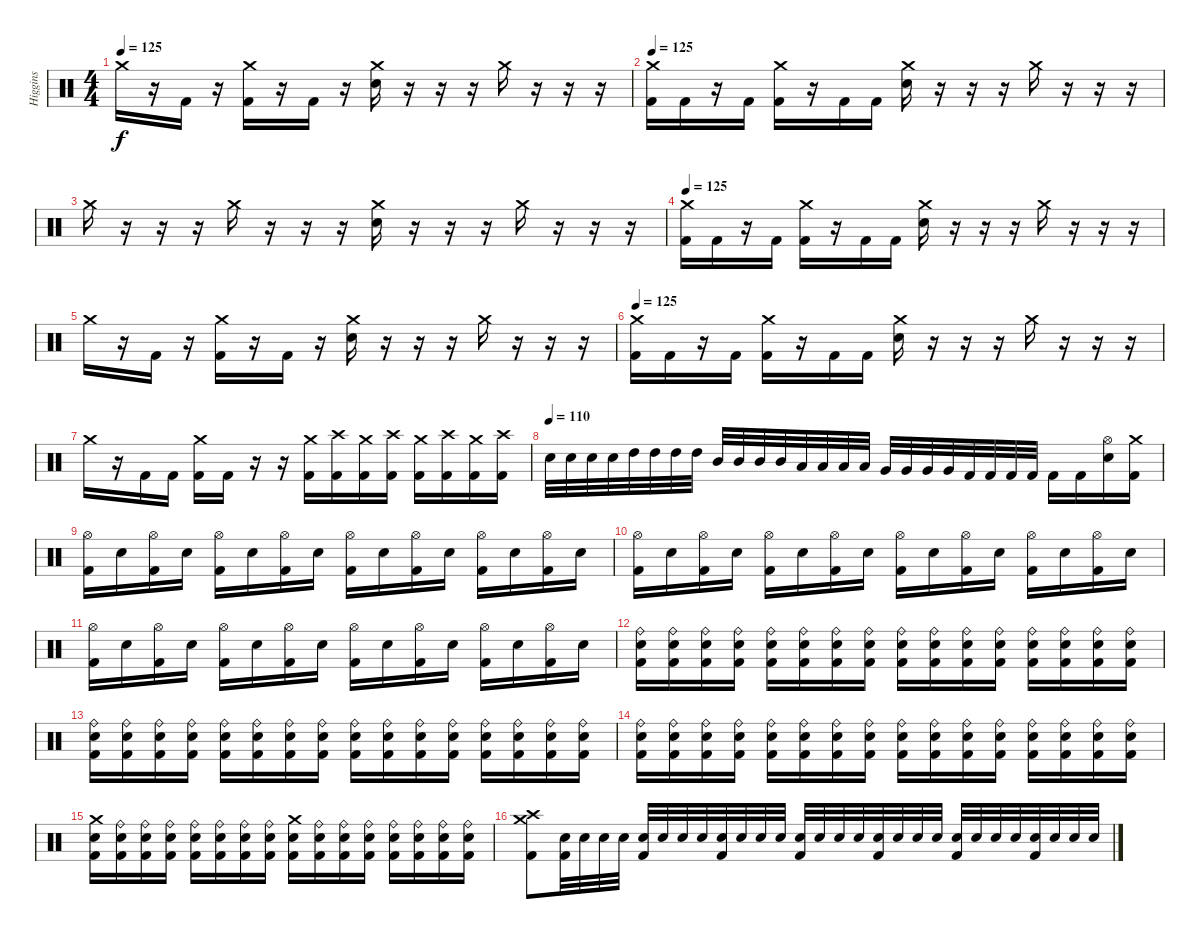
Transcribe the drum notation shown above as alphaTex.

\track ("Higgins" "Higgins") {instrument percussion}
\staff {score}
\articulation defaults
\ts (4 4)
\tempo 125
\clef neutral
\ks c "Crash medium (hit)".16{dy f}
r.16 "Kick (hit) 2".16 r.16 ("Crash medium (hit)" "Kick (hit) 2").16 r.16 "Kick (hit) 2".16 r.16 ("Crash medium (hit)" "Snare (hit) 2").16 r.16 r.16 r.16 "Crash medium (hit)".16 r.16 r.16 r.16 |
\tempo 125
("Crash medium (hit)" "Kick (hit) 2").16 "Kick (hit) 2".16 r.16 "Kick (hit) 2".16 ("Crash medium (hit)" "Kick (hit) 2").16 r.16 "Kick (hit) 2".16 "Kick (hit) 2".16 ("Crash medium (hit)" "Snare (hit) 2").16 r.16 r.16 r.16 "Crash medium (hit)".16 r.16 r.16 r.16 |
"Crash medium (hit)".16 r.16 r.16 r.16 "Crash medium (hit)".16 r.16 r.16 r.16 ("Crash medium (hit)" "Snare (hit) 2").16 r.16 r.16 r.16 "Crash medium (hit)".16 r.16 r.16 r.16 |
\tempo 125
("Crash medium (hit)" "Kick (hit) 2").16 "Kick (hit) 2".16 r.16 "Kick (hit) 2".16 ("Crash medium (hit)" "Kick (hit) 2").16 r.16 "Kick (hit) 2".16 "Kick (hit) 2".16 ("Crash medium (hit)" "Snare (hit) 2").16 r.16 r.16 r.16 "Crash medium (hit)".16 r.16 r.16 r.16 |
"Crash medium (hit)".16 r.16 "Kick (hit) 2".16 r.16 ("Crash medium (hit)" "Kick (hit) 2").16 r.16 "Kick (hit) 2".16 r.16 ("Crash medium (hit)" "Snare (hit) 2").16 r.16 r.16 r.16 "Crash medium (hit)".16 r.16 r.16 r.16 |
\tempo 125
("Crash medium (hit)" "Kick (hit) 2").16 "Kick (hit) 2".16 r.16 "Kick (hit) 2".16 ("Crash medium (hit)" "Kick (hit) 2").16 r.16 "Kick (hit) 2".16 "Kick (hit) 2".16 ("Crash medium (hit)" "Snare (hit) 2").16 r.16 r.16 r.16 "Crash medium (hit)".16 r.16 r.16 r.16 |
"Crash medium (hit)".16 r.16 "Kick (hit) 2".16 "Kick (hit) 2".16 ("Crash medium (hit)" "Kick (hit) 2").16 "Kick (hit) 2".16 r.16 r.16 ("Crash medium (hit)" "Kick (hit) 2").16 ("Crash high (hit)" "Kick (hit) 2").16 ("Crash medium (hit)" "Kick (hit) 2").16 ("Crash high (hit)" "Kick (hit) 2").16 ("Crash medium (hit)" "Kick (hit) 2").16 ("Crash high (hit)" "Kick (hit) 2").16 ("Crash medium (hit)" "Kick (hit) 2").16 ("Crash high (hit)" "Kick (hit) 2").16 |
\tempo (110)
"Snare (hit) 2".32 "Snare (hit) 2".32 "Snare (hit) 2".32 "Snare (hit) 2".32 "High Tom (hit)".32 "High Tom (hit)".32 "High Tom (hit)".32 "High Tom (hit)".32 "Mid Tom (hit)".32 "Mid Tom (hit)".32 "Mid Tom (hit)".32 "Mid Tom (hit)".32 "Low Tom (hit)".32 "Low Tom (hit)".32 "Low Tom (hit)".32 "Low Tom (hit)".32 "Very Low Tom (hit)".32 "Very Low Tom (hit)".32 "Very Low Tom (hit)".32 "Very Low Tom (hit)".32 "Kick (hit) 2".32 "Kick (hit) 2".32 "Kick (hit) 2".32 "Kick (hit) 2".32 "Kick (hit) 2".16 "Kick (hit) 2".16 ("Hi-Hat (open)" "Snare (hit) 2").16 ("Crash medium (hit)" "Kick (hit) 2").16 |
("Hi-Hat (open)" "Kick (hit) 2").16 "Snare (hit) 2".16 ("Hi-Hat (open)" "Kick (hit) 2").16 "Snare (hit) 2".16 ("Hi-Hat (open)" "Kick (hit) 2").16 "Snare (hit) 2".16 ("Hi-Hat (open)" "Kick (hit) 2").16 "Snare (hit) 2".16 ("Hi-Hat (open)" "Kick (hit) 2").16 "Snare (hit) 2".16 ("Hi-Hat (open)" "Kick (hit) 2").16 "Snare (hit) 2".16 ("Hi-Hat (open)" "Kick (hit) 2").16 "Snare (hit) 2".16 ("Hi-Hat (open)" "Kick (hit) 2").16 "Snare (hit) 2".16 |
("Hi-Hat (open)" "Kick (hit) 2").16 "Snare (hit) 2".16 ("Hi-Hat (open)" "Kick (hit) 2").16 "Snare (hit) 2".16 ("Hi-Hat (open)" "Kick (hit) 2").16 "Snare (hit) 2".16 ("Hi-Hat (open)" "Kick (hit) 2").16 "Snare (hit) 2".16 ("Hi-Hat (open)" "Kick (hit) 2").16 "Snare (hit) 2".16 ("Hi-Hat (open)" "Kick (hit) 2").16 "Snare (hit) 2".16 ("Hi-Hat (open)" "Kick (hit) 2").16 "Snare (hit) 2".16 ("Hi-Hat (open)" "Kick (hit) 2").16 "Snare (hit) 2".16 |
("Hi-Hat (open)" "Kick (hit) 2").16 "Snare (hit) 2".16 ("Hi-Hat (open)" "Kick (hit) 2").16 "Snare (hit) 2".16 ("Hi-Hat (open)" "Kick (hit) 2").16 "Snare (hit) 2".16 ("Hi-Hat (open)" "Kick (hit) 2").16 "Snare (hit) 2".16 ("Hi-Hat (open)" "Kick (hit) 2").16 "Snare (hit) 2".16 ("Hi-Hat (open)" "Kick (hit) 2").16 "Snare (hit) 2".16 ("Hi-Hat (open)" "Kick (hit) 2").16 "Snare (hit) 2".16 ("Hi-Hat (open)" "Kick (hit) 2").16 "Snare (hit) 2".16 |
("Ride (bell)" "Snare (hit) 2" "Kick (hit) 2").16 ("Ride (bell)" "Snare (hit) 2" "Kick (hit) 2").16 ("Ride (bell)" "Snare (hit) 2" "Kick (hit) 2").16 ("Ride (bell)" "Snare (hit) 2" "Kick (hit) 2").16 ("Ride (bell)" "Snare (hit) 2" "Kick (hit) 2").16 ("Ride (bell)" "Snare (hit) 2" "Kick (hit) 2").16 ("Ride (bell)" "Snare (hit) 2" "Kick (hit) 2").16 ("Ride (bell)" "Snare (hit) 2" "Kick (hit) 2").16 ("Ride (bell)" "Snare (hit) 2" "Kick (hit) 2").16 ("Ride (bell)" "Snare (hit) 2" "Kick (hit) 2").16 ("Ride (bell)" "Snare (hit) 2" "Kick (hit) 2").16 ("Ride (bell)" "Snare (hit) 2" "Kick (hit) 2").16 ("Ride (bell)" "Snare (hit) 2" "Kick (hit) 2").16 ("Ride (bell)" "Snare (hit) 2" "Kick (hit) 2").16 ("Ride (bell)" "Snare (hit) 2" "Kick (hit) 2").16 ("Ride (bell)" "Snare (hit) 2" "Kick (hit) 2").16 |
("Ride (bell)" "Snare (hit) 2" "Kick (hit) 2").16 ("Ride (bell)" "Snare (hit) 2" "Kick (hit) 2").16 ("Ride (bell)" "Snare (hit) 2" "Kick (hit) 2").16 ("Ride (bell)" "Snare (hit) 2" "Kick (hit) 2").16 ("Ride (bell)" "Snare (hit) 2" "Kick (hit) 2").16 ("Ride (bell)" "Snare (hit) 2" "Kick (hit) 2").16 ("Ride (bell)" "Snare (hit) 2" "Kick (hit) 2").16 ("Ride (bell)" "Snare (hit) 2" "Kick (hit) 2").16 ("Ride (bell)" "Snare (hit) 2" "Kick (hit) 2").16 ("Ride (bell)" "Snare (hit) 2" "Kick (hit) 2").16 ("Ride (bell)" "Snare (hit) 2" "Kick (hit) 2").16 ("Ride (bell)" "Snare (hit) 2" "Kick (hit) 2").16 ("Ride (bell)" "Snare (hit) 2" "Kick (hit) 2").16 ("Ride (bell)" "Snare (hit) 2" "Kick (hit) 2").16 ("Ride (bell)" "Snare (hit) 2" "Kick (hit) 2").16 ("Ride (bell)" "Snare (hit) 2" "Kick (hit) 2").16 |
("Ride (bell)" "Snare (hit) 2" "Kick (hit) 2").16 ("Ride (bell)" "Snare (hit) 2" "Kick (hit) 2").16 ("Ride (bell)" "Snare (hit) 2" "Kick (hit) 2").16 ("Ride (bell)" "Snare (hit) 2" "Kick (hit) 2").16 ("Ride (bell)" "Snare (hit) 2" "Kick (hit) 2").16 ("Ride (bell)" "Snare (hit) 2" "Kick (hit) 2").16 ("Ride (bell)" "Snare (hit) 2" "Kick (hit) 2").16 ("Ride (bell)" "Snare (hit) 2" "Kick (hit) 2").16 ("Ride (bell)" "Snare (hit) 2" "Kick (hit) 2").16 ("Ride (bell)" "Snare (hit) 2" "Kick (hit) 2").16 ("Ride (bell)" "Snare (hit) 2" "Kick (hit) 2").16 ("Ride (bell)" "Snare (hit) 2" "Kick (hit) 2").16 ("Ride (bell)" "Snare (hit) 2" "Kick (hit) 2").16 ("Ride (bell)" "Snare (hit) 2" "Kick (hit) 2").16 ("Ride (bell)" "Snare (hit) 2" "Kick (hit) 2").16 ("Ride (bell)" "Snare (hit) 2" "Kick (hit) 2").16 |
("Crash medium (hit)" "Snare (hit) 2" "Kick (hit) 2").16 ("Ride (bell)" "Snare (hit) 2" "Kick (hit) 2").16 ("Ride (bell)" "Snare (hit) 2" "Kick (hit) 2").16 ("Ride (bell)" "Snare (hit) 2" "Kick (hit) 2").16 ("Ride (bell)" "Snare (hit) 2" "Kick (hit) 2").16 ("Ride (bell)" "Snare (hit) 2" "Kick (hit) 2").16 ("Ride (bell)" "Snare (hit) 2" "Kick (hit) 2").16 ("Ride (bell)" "Snare (hit) 2" "Kick (hit) 2").16 ("Crash medium (hit)" "Snare (hit) 2" "Kick (hit) 2").16 ("Ride (bell)" "Snare (hit) 2" "Kick (hit) 2").16 ("Ride (bell)" "Snare (hit) 2" "Kick (hit) 2").16 ("Ride (bell)" "Snare (hit) 2" "Kick (hit) 2").16 ("Ride (bell)" "Snare (hit) 2" "Kick (hit) 2").16 ("Ride (bell)" "Snare (hit) 2" "Kick (hit) 2").16 ("Ride (bell)" "Snare (hit) 2" "Kick (hit) 2").16 ("Ride (bell)" "Snare (hit) 2" "Kick (hit) 2").16 |
("Crash high (hit)" "Crash medium (hit)" "Kick (hit) 2").8 ("Kick (hit) 2" "Snare (hit) 2").32 "Snare (hit) 2".32 "Snare (hit) 2".32 "Snare (hit) 2".32 ("Kick (hit) 2" "Snare (hit) 2").32 "Snare (hit) 2".32 "Snare (hit) 2".32 "Snare (hit) 2".32 ("Kick (hit) 2" "Snare (hit) 2").32 "Snare (hit) 2".32 "Snare (hit) 2".32 "Snare (hit) 2".32 ("Kick (hit) 2" "Snare (hit) 2").32 "Snare (hit) 2".32 "Snare (hit) 2".32 "Snare (hit) 2".32 ("Kick (hit) 2" "Snare (hit) 2").32 "Snare (hit) 2".32 "Snare (hit) 2".32 "Snare (hit) 2".32 ("Kick (hit) 2" "Snare (hit) 2").32 "Snare (hit) 2".32 "Snare (hit) 2".32 "Snare (hit) 2".32 ("Kick (hit) 2" "Snare (hit) 2").32 "Snare (hit) 2".32 "Snare (hit) 2".32 "Snare (hit) 2".32
